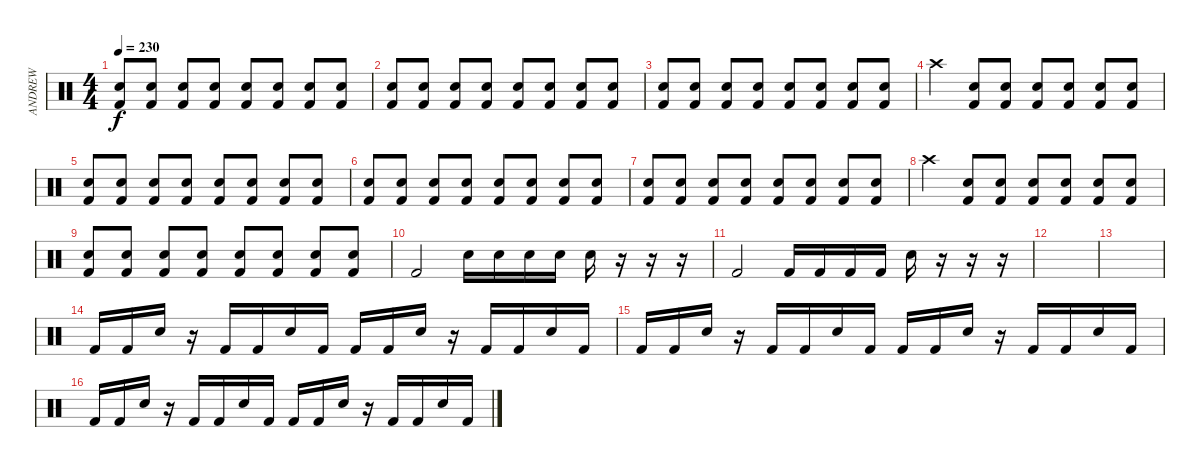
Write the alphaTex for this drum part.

\track ("ANDREW" "ANDREW") {instrument percussion}
\staff {score}
\articulation defaults
\ts (4 4)
\tempo 230
\clef neutral
\ks c
("Electric Snare (hit)" "Kick (hit) 2").8{dy f} ("Electric Snare (hit)" "Kick (hit) 2").8 ("Electric Snare (hit)" "Kick (hit) 2").8 ("Electric Snare (hit)" "Kick (hit) 2").8 ("Electric Snare (hit)" "Kick (hit) 2").8 ("Electric Snare (hit)" "Kick (hit) 2").8 ("Electric Snare (hit)" "Kick (hit) 2").8 ("Electric Snare (hit)" "Kick (hit) 2").8 |
("Electric Snare (hit)" "Kick (hit) 2").8 ("Electric Snare (hit)" "Kick (hit) 2").8 ("Electric Snare (hit)" "Kick (hit) 2").8 ("Electric Snare (hit)" "Kick (hit) 2").8 ("Electric Snare (hit)" "Kick (hit) 2").8 ("Electric Snare (hit)" "Kick (hit) 2").8 ("Electric Snare (hit)" "Kick (hit) 2").8 ("Electric Snare (hit)" "Kick (hit) 2").8 |
("Electric Snare (hit)" "Kick (hit) 2").8 ("Electric Snare (hit)" "Kick (hit) 2").8 ("Electric Snare (hit)" "Kick (hit) 2").8 ("Electric Snare (hit)" "Kick (hit) 2").8 ("Electric Snare (hit)" "Kick (hit) 2").8 ("Electric Snare (hit)" "Kick (hit) 2").8 ("Electric Snare (hit)" "Kick (hit) 2").8 ("Electric Snare (hit)" "Kick (hit) 2").8 |
"Crash high (hit)".4 ("Electric Snare (hit)" "Kick (hit) 2").8 ("Electric Snare (hit)" "Kick (hit) 2").8 ("Electric Snare (hit)" "Kick (hit) 2").8 ("Electric Snare (hit)" "Kick (hit) 2").8 ("Electric Snare (hit)" "Kick (hit) 2").8 ("Electric Snare (hit)" "Kick (hit) 2").8 |
("Electric Snare (hit)" "Kick (hit) 2").8 ("Electric Snare (hit)" "Kick (hit) 2").8 ("Electric Snare (hit)" "Kick (hit) 2").8 ("Electric Snare (hit)" "Kick (hit) 2").8 ("Electric Snare (hit)" "Kick (hit) 2").8 ("Electric Snare (hit)" "Kick (hit) 2").8 ("Electric Snare (hit)" "Kick (hit) 2").8 ("Electric Snare (hit)" "Kick (hit) 2").8 |
("Electric Snare (hit)" "Kick (hit) 2").8 ("Electric Snare (hit)" "Kick (hit) 2").8 ("Electric Snare (hit)" "Kick (hit) 2").8 ("Electric Snare (hit)" "Kick (hit) 2").8 ("Electric Snare (hit)" "Kick (hit) 2").8 ("Electric Snare (hit)" "Kick (hit) 2").8 ("Electric Snare (hit)" "Kick (hit) 2").8 ("Electric Snare (hit)" "Kick (hit) 2").8 |
("Electric Snare (hit)" "Kick (hit) 2").8 ("Electric Snare (hit)" "Kick (hit) 2").8 ("Electric Snare (hit)" "Kick (hit) 2").8 ("Electric Snare (hit)" "Kick (hit) 2").8 ("Electric Snare (hit)" "Kick (hit) 2").8 ("Electric Snare (hit)" "Kick (hit) 2").8 ("Electric Snare (hit)" "Kick (hit) 2").8 ("Electric Snare (hit)" "Kick (hit) 2").8 |
"Crash high (hit)".4 ("Electric Snare (hit)" "Kick (hit) 2").8 ("Electric Snare (hit)" "Kick (hit) 2").8 ("Electric Snare (hit)" "Kick (hit) 2").8 ("Electric Snare (hit)" "Kick (hit) 2").8 ("Electric Snare (hit)" "Kick (hit) 2").8 ("Electric Snare (hit)" "Kick (hit) 2").8 |
("Electric Snare (hit)" "Kick (hit) 2").8 ("Electric Snare (hit)" "Kick (hit) 2").8 ("Electric Snare (hit)" "Kick (hit) 2").8 ("Electric Snare (hit)" "Kick (hit) 2").8 ("Electric Snare (hit)" "Kick (hit) 2").8 ("Electric Snare (hit)" "Kick (hit) 2").8 ("Electric Snare (hit)" "Kick (hit) 2").8 ("Electric Snare (hit)" "Kick (hit) 2").8 |
"Kick (hit) 2".2 "Electric Snare (hit)".16 "Electric Snare (hit)".16 "Electric Snare (hit)".16 "Electric Snare (hit)".16 "Electric Snare (hit)".16 r.16 r.16 r.16 |
"Kick (hit) 2".2 "Kick (hit) 2".16 "Kick (hit) 2".16 "Kick (hit) 2".16 "Kick (hit) 2".16 "Electric Snare (hit)".16 r.16 r.16 r.16 |
|
|
"Kick (hit) 2".16 "Kick (hit) 2".16 "Electric Snare (hit)".16 r.16 "Kick (hit) 2".16 "Kick (hit) 2".16 "Electric Snare (hit)".16 "Kick (hit) 2".16 "Kick (hit) 2".16 "Kick (hit) 2".16 "Electric Snare (hit)".16 r.16 "Kick (hit) 2".16 "Kick (hit) 2".16 "Electric Snare (hit)".16 "Kick (hit) 2".16 |
"Kick (hit) 2".16 "Kick (hit) 2".16 "Electric Snare (hit)".16 r.16 "Kick (hit) 2".16 "Kick (hit) 2".16 "Electric Snare (hit)".16 "Kick (hit) 2".16 "Kick (hit) 2".16 "Kick (hit) 2".16 "Electric Snare (hit)".16 r.16 "Kick (hit) 2".16 "Kick (hit) 2".16 "Electric Snare (hit)".16 "Kick (hit) 2".16 |
"Kick (hit) 2".16 "Kick (hit) 2".16 "Electric Snare (hit)".16 r.16 "Kick (hit) 2".16 "Kick (hit) 2".16 "Electric Snare (hit)".16 "Kick (hit) 2".16 "Kick (hit) 2".16 "Kick (hit) 2".16 "Electric Snare (hit)".16 r.16 "Kick (hit) 2".16 "Kick (hit) 2".16 "Electric Snare (hit)".16 "Kick (hit) 2".16
